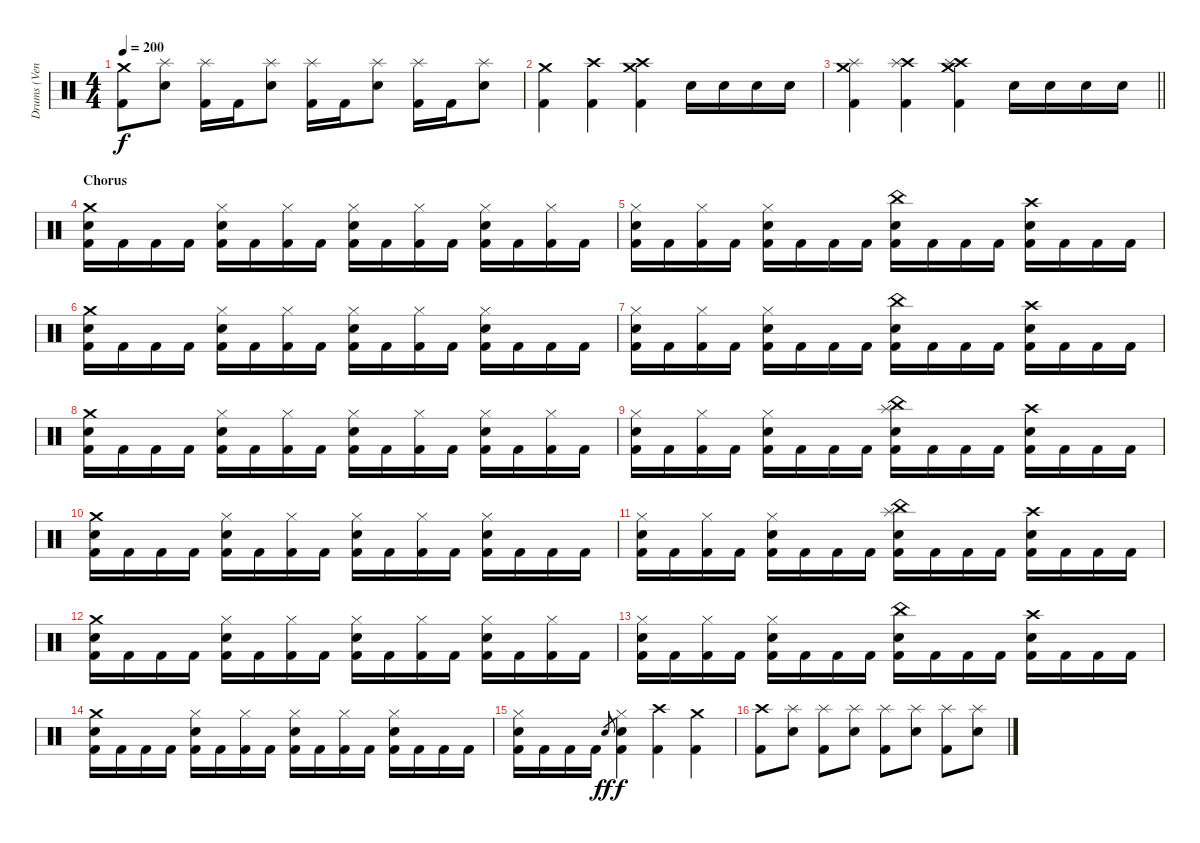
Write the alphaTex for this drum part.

\track ("Drums (Ventor)" "Drums (Ven") {instrument percussion}
\staff {score}
\articulation defaults
\ts (4 4)
\tempo 200
\clef neutral
\ks c
("Crash medium (hit)" "Kick (hit) 2").8{dy f} ("Electric Snare (hit)" "Splash (hit)").8 ("Splash (hit)" "Kick (hit) 2").16 "Kick (hit) 2".16 ("Electric Snare (hit)" "Splash (hit)").8 ("Splash (hit)" "Kick (hit) 2").16 "Kick (hit) 2".16 ("Electric Snare (hit)" "Splash (hit)").8 ("Splash (hit)" "Kick (hit) 2").16 "Kick (hit) 2".16 ("Electric Snare (hit)" "Splash (hit)").8 |
("Crash medium (hit)" "Kick (hit) 2").4 ("Crash high (hit)" "Kick (hit) 2").4 ("Crash medium (hit)" "Crash high (hit)" "Kick (hit) 2").4 "Electric Snare (hit)".16 "Electric Snare (hit)".16 "Electric Snare (hit)".16 "Electric Snare (hit)".16 |
\barLineRight lightlight
("Crash medium (hit)" "Splash (hit)" "Kick (hit) 2").4 ("Crash high (hit)" "Splash (hit)" "Kick (hit) 2").4 ("Crash medium (hit)" "Crash high (hit)" "Splash (hit)" "Kick (hit) 2").4 "Electric Snare (hit)".16 "Electric Snare (hit)".16 "Electric Snare (hit)".16 "Electric Snare (hit)".16 |
\section ("" "Chorus")
("Electric Snare (hit)" "Crash medium (hit)" "Kick (hit) 2").16 "Kick (hit) 2".16 "Kick (hit) 2".16 "Kick (hit) 2".16 ("Electric Snare (hit)" "Hi-Hat (closed)" "Kick (hit) 2").16 "Kick (hit) 2".16 ("Hi-Hat (closed)" "Kick (hit) 2").16 "Kick (hit) 2".16 ("Electric Snare (hit)" "Hi-Hat (closed)" "Kick (hit) 2").16 "Kick (hit) 2".16 ("Hi-Hat (closed)" "Kick (hit) 2").16 "Kick (hit) 2".16 ("Electric Snare (hit)" "Hi-Hat (closed)" "Kick (hit) 2").16 "Kick (hit) 2".16 ("Hi-Hat (closed)" "Kick (hit) 2").16 "Kick (hit) 2".16 |
("Electric Snare (hit)" "Hi-Hat (closed)" "Kick (hit) 2").16 "Kick (hit) 2".16 ("Hi-Hat (closed)" "Kick (hit) 2").16 "Kick (hit) 2".16 ("Electric Snare (hit)" "Hi-Hat (closed)" "Kick (hit) 2").16 "Kick (hit) 2".16 "Kick (hit) 2".16 "Kick (hit) 2".16 ("Electric Snare (hit)" "China (hit)" "Kick (hit) 2").16 "Kick (hit) 2".16 "Kick (hit) 2".16 "Kick (hit) 2".16 ("Electric Snare (hit)" "Crash high (hit)" "Kick (hit) 2").16 "Kick (hit) 2".16 "Kick (hit) 2".16 "Kick (hit) 2".16 |
("Electric Snare (hit)" "Crash medium (hit)" "Kick (hit) 2").16 "Kick (hit) 2".16 "Kick (hit) 2".16 "Kick (hit) 2".16 ("Electric Snare (hit)" "Hi-Hat (closed)" "Kick (hit) 2").16 "Kick (hit) 2".16 ("Hi-Hat (closed)" "Kick (hit) 2").16 "Kick (hit) 2".16 ("Electric Snare (hit)" "Hi-Hat (closed)" "Kick (hit) 2").16 "Kick (hit) 2".16 ("Hi-Hat (closed)" "Kick (hit) 2").16 "Kick (hit) 2".16 ("Electric Snare (hit)" "Hi-Hat (closed)" "Kick (hit) 2").16 "Kick (hit) 2".16 "Kick (hit) 2".16 "Kick (hit) 2".16 |
("Electric Snare (hit)" "Hi-Hat (closed)" "Kick (hit) 2").16 "Kick (hit) 2".16 ("Hi-Hat (closed)" "Kick (hit) 2").16 "Kick (hit) 2".16 ("Electric Snare (hit)" "Hi-Hat (closed)" "Kick (hit) 2").16 "Kick (hit) 2".16 "Kick (hit) 2".16 "Kick (hit) 2".16 ("Electric Snare (hit)" "China (hit)" "Kick (hit) 2").16 "Kick (hit) 2".16 "Kick (hit) 2".16 "Kick (hit) 2".16 ("Electric Snare (hit)" "Crash high (hit)" "Kick (hit) 2").16 "Kick (hit) 2".16 "Kick (hit) 2".16 "Kick (hit) 2".16 |
("Electric Snare (hit)" "Crash medium (hit)" "Kick (hit) 2").16 "Kick (hit) 2".16 "Kick (hit) 2".16 "Kick (hit) 2".16 ("Electric Snare (hit)" "Hi-Hat (closed)" "Kick (hit) 2").16 "Kick (hit) 2".16 ("Hi-Hat (closed)" "Kick (hit) 2").16 "Kick (hit) 2".16 ("Electric Snare (hit)" "Hi-Hat (closed)" "Kick (hit) 2").16 "Kick (hit) 2".16 ("Hi-Hat (closed)" "Kick (hit) 2").16 "Kick (hit) 2".16 ("Electric Snare (hit)" "Hi-Hat (closed)" "Kick (hit) 2").16 "Kick (hit) 2".16 ("Hi-Hat (closed)" "Kick (hit) 2").16 "Kick (hit) 2".16 |
("Electric Snare (hit)" "Hi-Hat (closed)" "Kick (hit) 2").16 "Kick (hit) 2".16 ("Hi-Hat (closed)" "Kick (hit) 2").16 "Kick (hit) 2".16 ("Electric Snare (hit)" "Hi-Hat (closed)" "Kick (hit) 2").16 "Kick (hit) 2".16 "Kick (hit) 2".16 "Kick (hit) 2".16 ("Electric Snare (hit)" "China (hit)" "Splash (hit)" "Kick (hit) 2").16 "Kick (hit) 2".16 "Kick (hit) 2".16 "Kick (hit) 2".16 ("Electric Snare (hit)" "Crash high (hit)" "Kick (hit) 2").16 "Kick (hit) 2".16 "Kick (hit) 2".16 "Kick (hit) 2".16 |
("Electric Snare (hit)" "Crash medium (hit)" "Kick (hit) 2").16 "Kick (hit) 2".16 "Kick (hit) 2".16 "Kick (hit) 2".16 ("Electric Snare (hit)" "Hi-Hat (closed)" "Kick (hit) 2").16 "Kick (hit) 2".16 ("Hi-Hat (closed)" "Kick (hit) 2").16 "Kick (hit) 2".16 ("Electric Snare (hit)" "Hi-Hat (closed)" "Kick (hit) 2").16 "Kick (hit) 2".16 ("Hi-Hat (closed)" "Kick (hit) 2").16 "Kick (hit) 2".16 ("Electric Snare (hit)" "Hi-Hat (closed)" "Kick (hit) 2").16 "Kick (hit) 2".16 "Kick (hit) 2".16 "Kick (hit) 2".16 |
("Electric Snare (hit)" "Hi-Hat (closed)" "Kick (hit) 2").16 "Kick (hit) 2".16 ("Hi-Hat (closed)" "Kick (hit) 2").16 "Kick (hit) 2".16 ("Electric Snare (hit)" "Hi-Hat (closed)" "Kick (hit) 2").16 "Kick (hit) 2".16 "Kick (hit) 2".16 "Kick (hit) 2".16 ("Electric Snare (hit)" "China (hit)" "Splash (hit)" "Kick (hit) 2").16 "Kick (hit) 2".16 "Kick (hit) 2".16 "Kick (hit) 2".16 ("Electric Snare (hit)" "Crash high (hit)" "Kick (hit) 2").16 "Kick (hit) 2".16 "Kick (hit) 2".16 "Kick (hit) 2".16 |
("Electric Snare (hit)" "Crash medium (hit)" "Kick (hit) 2").16 "Kick (hit) 2".16 "Kick (hit) 2".16 "Kick (hit) 2".16 ("Electric Snare (hit)" "Hi-Hat (closed)" "Kick (hit) 2").16 "Kick (hit) 2".16 ("Hi-Hat (closed)" "Kick (hit) 2").16 "Kick (hit) 2".16 ("Electric Snare (hit)" "Hi-Hat (closed)" "Kick (hit) 2").16 "Kick (hit) 2".16 ("Hi-Hat (closed)" "Kick (hit) 2").16 "Kick (hit) 2".16 ("Electric Snare (hit)" "Hi-Hat (closed)" "Kick (hit) 2").16 "Kick (hit) 2".16 ("Hi-Hat (closed)" "Kick (hit) 2").16 "Kick (hit) 2".16 |
("Electric Snare (hit)" "Hi-Hat (closed)" "Kick (hit) 2").16 "Kick (hit) 2".16 ("Hi-Hat (closed)" "Kick (hit) 2").16 "Kick (hit) 2".16 ("Electric Snare (hit)" "Hi-Hat (closed)" "Kick (hit) 2").16 "Kick (hit) 2".16 "Kick (hit) 2".16 "Kick (hit) 2".16 ("Electric Snare (hit)" "China (hit)" "Kick (hit) 2").16 "Kick (hit) 2".16 "Kick (hit) 2".16 "Kick (hit) 2".16 ("Electric Snare (hit)" "Crash high (hit)" "Kick (hit) 2").16 "Kick (hit) 2".16 "Kick (hit) 2".16 "Kick (hit) 2".16 |
("Electric Snare (hit)" "Crash medium (hit)" "Kick (hit) 2").16 "Kick (hit) 2".16 "Kick (hit) 2".16 "Kick (hit) 2".16 ("Electric Snare (hit)" "Hi-Hat (closed)" "Kick (hit) 2").16 "Kick (hit) 2".16 ("Hi-Hat (closed)" "Kick (hit) 2").16 "Kick (hit) 2".16 ("Electric Snare (hit)" "Hi-Hat (closed)" "Kick (hit) 2").16 "Kick (hit) 2".16 ("Hi-Hat (closed)" "Kick (hit) 2").16 "Kick (hit) 2".16 ("Electric Snare (hit)" "Hi-Hat (closed)" "Kick (hit) 2").16 "Kick (hit) 2".16 "Kick (hit) 2".16 "Kick (hit) 2".16 |
("Electric Snare (hit)" "Hi-Hat (closed)" "Kick (hit) 2").16 "Kick (hit) 2".16 "Kick (hit) 2".16 "Kick (hit) 2".16 "Electric Snare (hit)".8{gr dy ff} ("Electric Snare (hit)" "Hi-Hat (closed)" "Kick (hit) 2").4{dy f} ("Crash high (hit)" "Kick (hit) 2").4 ("Crash medium (hit)" "Kick (hit) 2").4 |
("Crash high (hit)" "Kick (hit) 2").8 ("Electric Snare (hit)" "Splash (hit)").8 ("Splash (hit)" "Kick (hit) 2").8 ("Electric Snare (hit)" "Splash (hit)").8 ("Splash (hit)" "Kick (hit) 2").8 ("Electric Snare (hit)" "Splash (hit)").8 ("Splash (hit)" "Kick (hit) 2").8 ("Electric Snare (hit)" "Splash (hit)").8
